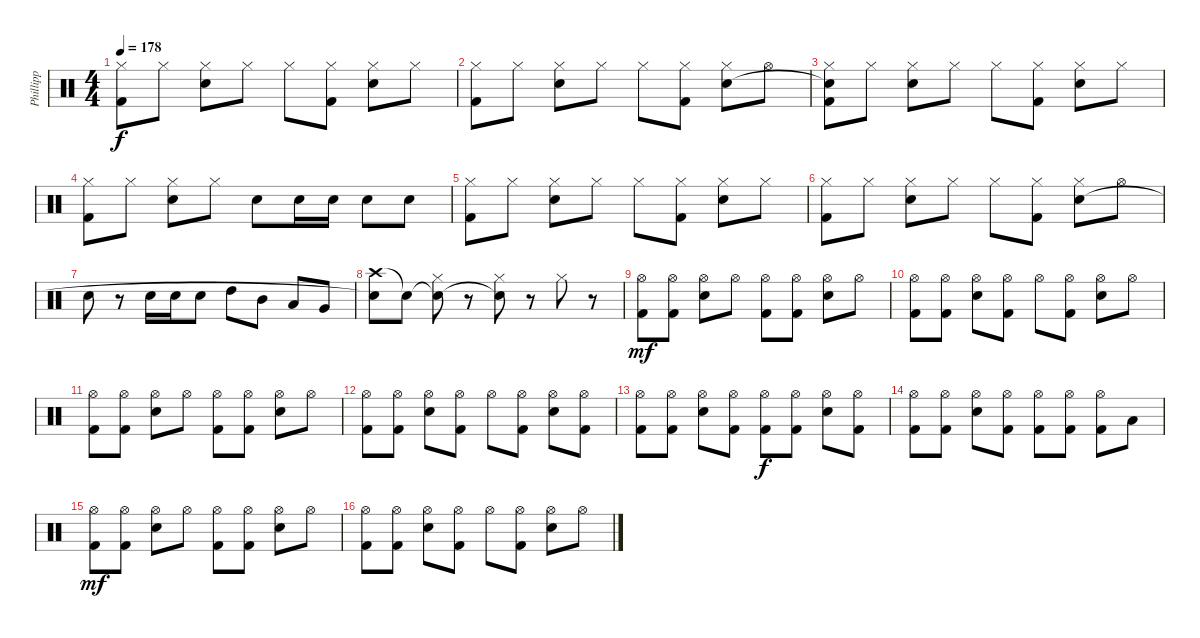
\track ("Phillipp" "Phillipp") {instrument percussion}
\staff {score}
\articulation defaults
\ts (4 4)
\tempo 178
\clef neutral
\ks c
("Hi-Hat (closed)" "Kick (hit) 2").8{dy f} "Hi-Hat (closed)".8 ("Hi-Hat (closed)" "Electric Snare (hit)").8 "Hi-Hat (closed)".8 "Hi-Hat (closed)".8 ("Hi-Hat (closed)" "Kick (hit) 2").8 ("Hi-Hat (closed)" "Electric Snare (hit)").8 "Hi-Hat (closed)".8 |
("Hi-Hat (closed)" "Kick (hit) 2").8 "Hi-Hat (closed)".8 ("Hi-Hat (closed)" "Electric Snare (hit)").8 "Hi-Hat (closed)".8 "Hi-Hat (closed)".8 ("Hi-Hat (closed)" "Kick (hit) 2").8 ("Hi-Hat (closed)" "Electric Snare (hit)").8 "Hi-Hat (open)".8 |
("Hi-Hat (closed)" "Snare (hit)"{t} "Kick (hit) 2").8 "Hi-Hat (closed)".8 ("Hi-Hat (closed)" "Electric Snare (hit)").8 "Hi-Hat (closed)".8 "Hi-Hat (closed)".8 ("Hi-Hat (closed)" "Kick (hit) 2").8 ("Hi-Hat (closed)" "Electric Snare (hit)").8 "Hi-Hat (closed)".8 |
("Hi-Hat (closed)" "Kick (hit) 2").8 "Hi-Hat (closed)".8 ("Hi-Hat (closed)" "Electric Snare (hit)").8 "Hi-Hat (closed)".8 "Electric Snare (hit)".8 "Electric Snare (hit)".16 "Electric Snare (hit)".16 "Electric Snare (hit)".8 "Electric Snare (hit)".8 |
("Hi-Hat (closed)" "Kick (hit) 2").8 "Hi-Hat (closed)".8 ("Hi-Hat (closed)" "Electric Snare (hit)").8 "Hi-Hat (closed)".8 "Hi-Hat (closed)".8 ("Hi-Hat (closed)" "Kick (hit) 2").8 ("Hi-Hat (closed)" "Electric Snare (hit)").8 "Hi-Hat (closed)".8 |
("Hi-Hat (closed)" "Kick (hit) 2").8 "Hi-Hat (closed)".8 ("Hi-Hat (closed)" "Electric Snare (hit)").8 "Hi-Hat (closed)".8 "Hi-Hat (closed)".8 ("Hi-Hat (closed)" "Kick (hit) 2").8 ("Hi-Hat (closed)" "Electric Snare (hit)").8 "Hi-Hat (open)".8 |
"Electric Snare (hit)".8 r.8 "Electric Snare (hit)".16 "Electric Snare (hit)".16 "Electric Snare (hit)".8 "High Tom (hit)".8 "Mid Tom (hit)".8 "Low Tom (hit)".8 "Very Low Tom (hit)".8 |
("Crash high (hit)" "Snare (hit)"{t}).8 "Snare (hit)"{t}.8 ("Snare (hit)"{t} "Hi-Hat (closed)").8 r.8 ("Snare (hit)"{t} "Hi-Hat (closed)").8 r.8 "Hi-Hat (closed)".8 r.8 |
("Hi-Hat (open)" "Kick (hit) 2").8{dy mf} ("Hi-Hat (open)" "Kick (hit) 2").8 ("Hi-Hat (open)" "Electric Snare (hit)").8 "Hi-Hat (open)".8 ("Hi-Hat (open)" "Kick (hit) 2").8 ("Hi-Hat (open)" "Kick (hit) 2").8 ("Hi-Hat (open)" "Electric Snare (hit)").8 "Hi-Hat (open)".8 |
("Hi-Hat (open)" "Kick (hit) 2").8 ("Hi-Hat (open)" "Kick (hit) 2").8 ("Hi-Hat (open)" "Electric Snare (hit)").8 ("Hi-Hat (open)" "Kick (hit) 2").8 "Hi-Hat (open)".8 ("Hi-Hat (open)" "Kick (hit) 2").8 ("Hi-Hat (open)" "Electric Snare (hit)").8 "Hi-Hat (open)".8 |
("Hi-Hat (open)" "Kick (hit) 2").8 ("Hi-Hat (open)" "Kick (hit) 2").8 ("Hi-Hat (open)" "Electric Snare (hit)").8 "Hi-Hat (open)".8 ("Hi-Hat (open)" "Kick (hit) 2").8 ("Hi-Hat (open)" "Kick (hit) 2").8 ("Hi-Hat (open)" "Electric Snare (hit)").8 "Hi-Hat (open)".8 |
("Hi-Hat (open)" "Kick (hit) 2").8 ("Hi-Hat (open)" "Kick (hit) 2").8 ("Hi-Hat (open)" "Electric Snare (hit)").8 ("Hi-Hat (open)" "Kick (hit) 2").8 "Hi-Hat (open)".8 ("Hi-Hat (open)" "Kick (hit) 2").8 ("Hi-Hat (open)" "Electric Snare (hit)").8 ("Hi-Hat (open)" "Kick (hit) 2").8 |
("Hi-Hat (open)" "Kick (hit) 2").8 ("Hi-Hat (open)" "Kick (hit) 2").8 ("Hi-Hat (open)" "Electric Snare (hit)").8 ("Hi-Hat (open)" "Kick (hit) 2").8 ("Hi-Hat (open)" "Kick (hit) 2").8{dy f} ("Hi-Hat (open)" "Kick (hit) 2").8 ("Hi-Hat (open)" "Electric Snare (hit)").8 ("Hi-Hat (open)" "Kick (hit) 2").8 |
("Hi-Hat (open)" "Kick (hit) 2").8 ("Hi-Hat (open)" "Kick (hit) 2").8 ("Hi-Hat (open)" "Electric Snare (hit)").8 ("Hi-Hat (open)" "Kick (hit) 2").8 ("Hi-Hat (open)" "Kick (hit) 2").8 ("Hi-Hat (open)" "Kick (hit) 2").8 ("Hi-Hat (open)" "Kick (hit) 2").8 "Low Tom (hit)".8 |
("Hi-Hat (open)" "Kick (hit) 2").8{dy mf} ("Hi-Hat (open)" "Kick (hit) 2").8 ("Hi-Hat (open)" "Electric Snare (hit)").8 "Hi-Hat (open)".8 ("Hi-Hat (open)" "Kick (hit) 2").8 ("Hi-Hat (open)" "Kick (hit) 2").8 ("Hi-Hat (open)" "Electric Snare (hit)").8 "Hi-Hat (open)".8 |
("Hi-Hat (open)" "Kick (hit) 2").8 ("Hi-Hat (open)" "Kick (hit) 2").8 ("Hi-Hat (open)" "Electric Snare (hit)").8 ("Hi-Hat (open)" "Kick (hit) 2").8 "Hi-Hat (open)".8 ("Hi-Hat (open)" "Kick (hit) 2").8 ("Hi-Hat (open)" "Electric Snare (hit)").8 "Hi-Hat (open)".8
